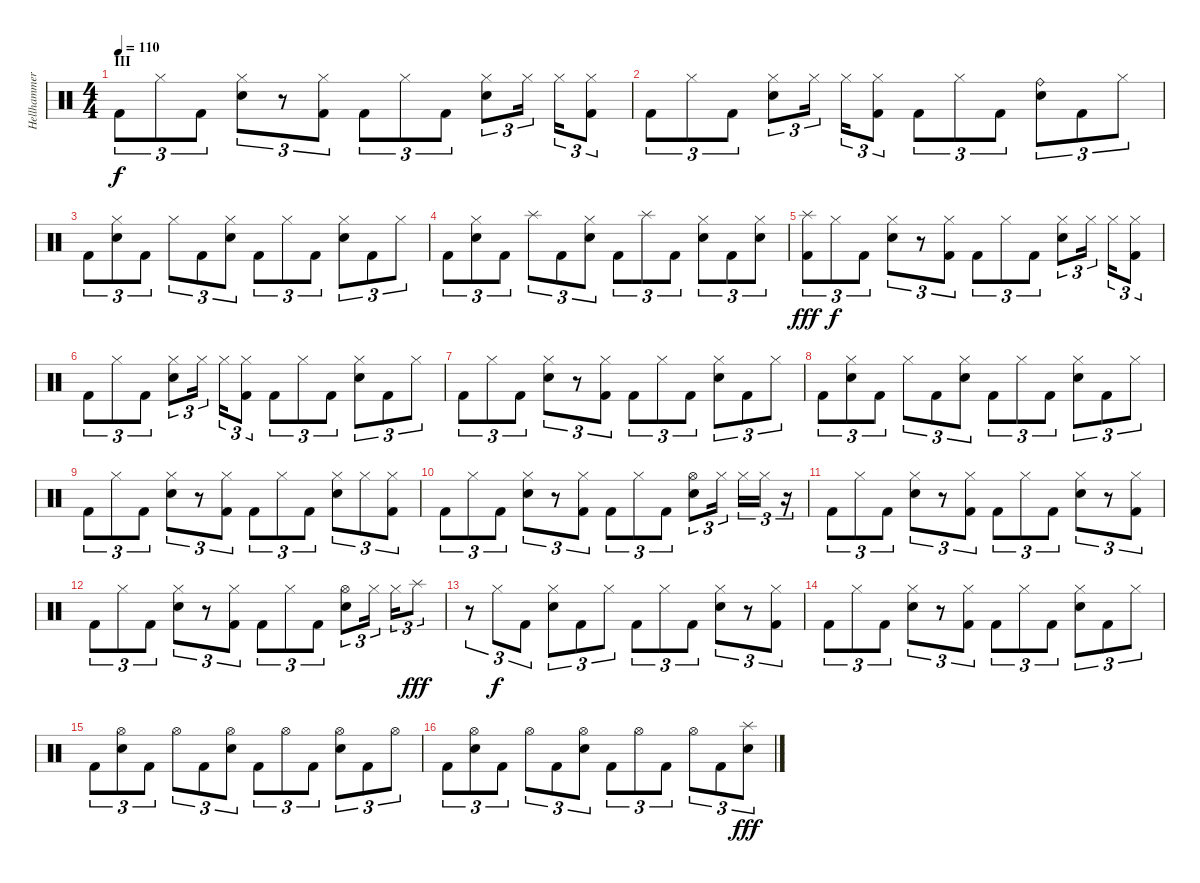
\track ("Hellhammer" "Hellhammer") {instrument percussion}
\staff {score}
\articulation defaults
\ts (4 4)
\section ("" "III")
\tempo 110
\clef neutral
\ks c "Kick (hit) 2".8{tu (3 2) dy f} "Hi-Hat (closed)".8{tu (3 2)} "Kick (hit) 2".8{tu (3 2)}
("Electric Snare (hit)" "Hi-Hat (closed)").8{tu (3 2)} r.8{tu (3 2)} ("Kick (hit) 2" "Hi-Hat (closed)").8{tu (3 2)} "Kick (hit) 2".8{tu (3 2)} "Hi-Hat (closed)".8{tu (3 2)} "Kick (hit) 2".8{tu (3 2)} ("Electric Snare (hit)" "Hi-Hat (closed)").8{tu (3 2)} "Hi-Hat (closed)".16{tu (3 2)} "Hi-Hat (closed)".16{tu (3 2)} ("Kick (hit) 2" "Hi-Hat (closed)").8{tu (3 2)} |
"Kick (hit) 2".8{tu (3 2)} "Hi-Hat (closed)".8{tu (3 2)} "Kick (hit) 2".8{tu (3 2)} ("Electric Snare (hit)" "Hi-Hat (closed)").8{tu (3 2)} "Hi-Hat (closed)".16{tu (3 2)} "Hi-Hat (closed)".16{tu (3 2)} ("Kick (hit) 2" "Hi-Hat (closed)").8{tu (3 2)} "Kick (hit) 2".8{tu (3 2)} "Hi-Hat (closed)".8{tu (3 2)} "Kick (hit) 2".8{tu (3 2)} ("Electric Snare (hit)" "Ride (bell)").8{tu (3 2)} "Kick (hit) 2".8{tu (3 2)} "Hi-Hat (closed)".8{tu (3 2)} |
"Kick (hit) 2".8{tu (3 2)} ("Electric Snare (hit)" "Hi-Hat (closed)").8{tu (3 2)} "Kick (hit) 2".8{tu (3 2)} "Hi-Hat (closed)".8{tu (3 2)} "Kick (hit) 2".8{tu (3 2)} ("Electric Snare (hit)" "Hi-Hat (closed)").8{tu (3 2)} "Kick (hit) 2".8{tu (3 2)} "Hi-Hat (closed)".8{tu (3 2)} "Kick (hit) 2".8{tu (3 2)} ("Electric Snare (hit)" "Hi-Hat (closed)").8{tu (3 2)} "Kick (hit) 2".8{tu (3 2)} "Hi-Hat (closed)".8{tu (3 2)} |
"Kick (hit) 2".8{tu (3 2)} ("Electric Snare (hit)" "Hi-Hat (closed)").8{tu (3 2)} "Kick (hit) 2".8{tu (3 2)} "Splash (hit)".8{tu (3 2)} "Kick (hit) 2".8{tu (3 2)} ("Electric Snare (hit)" "Hi-Hat (closed)").8{tu (3 2)} "Kick (hit) 2".8{tu (3 2)} "Splash (hit)".8{tu (3 2)} "Kick (hit) 2".8{tu (3 2)} ("Electric Snare (hit)" "Hi-Hat (closed)").8{tu (3 2)} "Kick (hit) 2".8{tu (3 2)} ("Electric Snare (hit)" "Hi-Hat (closed)").8{tu (3 2)} |
("Kick (hit) 2" "Splash (hit)").8{tu (3 2) dy fff} "Hi-Hat (closed)".8{tu (3 2) dy f} "Kick (hit) 2".8{tu (3 2)} ("Electric Snare (hit)" "Hi-Hat (closed)").8{tu (3 2)} r.8{tu (3 2)} ("Kick (hit) 2" "Hi-Hat (closed)").8{tu (3 2)} "Kick (hit) 2".8{tu (3 2)} "Hi-Hat (closed)".8{tu (3 2)} "Kick (hit) 2".8{tu (3 2)} ("Electric Snare (hit)" "Hi-Hat (closed)").8{tu (3 2)} "Hi-Hat (closed)".16{tu (3 2)} "Hi-Hat (closed)".16{tu (3 2)} ("Kick (hit) 2" "Hi-Hat (closed)").8{tu (3 2)} |
"Kick (hit) 2".8{tu (3 2)} "Hi-Hat (closed)".8{tu (3 2)} "Kick (hit) 2".8{tu (3 2)} ("Electric Snare (hit)" "Hi-Hat (closed)").8{tu (3 2)} "Hi-Hat (closed)".16{tu (3 2)} "Hi-Hat (closed)".16{tu (3 2)} ("Kick (hit) 2" "Hi-Hat (closed)").8{tu (3 2)} "Kick (hit) 2".8{tu (3 2)} "Hi-Hat (closed)".8{tu (3 2)} "Kick (hit) 2".8{tu (3 2)} ("Electric Snare (hit)" "Hi-Hat (closed)").8{tu (3 2)} "Kick (hit) 2".8{tu (3 2)} "Hi-Hat (closed)".8{tu (3 2)} |
"Kick (hit) 2".8{tu (3 2)} "Hi-Hat (closed)".8{tu (3 2)} "Kick (hit) 2".8{tu (3 2)} ("Electric Snare (hit)" "Hi-Hat (closed)").8{tu (3 2)} r.8{tu (3 2)} ("Kick (hit) 2" "Hi-Hat (closed)").8{tu (3 2)} "Kick (hit) 2".8{tu (3 2)} "Hi-Hat (closed)".8{tu (3 2)} "Kick (hit) 2".8{tu (3 2)} ("Electric Snare (hit)" "Hi-Hat (closed)").8{tu (3 2)} "Kick (hit) 2".8{tu (3 2)} "Hi-Hat (closed)".8{tu (3 2)} |
"Kick (hit) 2".8{tu (3 2)} ("Electric Snare (hit)" "Hi-Hat (closed)").8{tu (3 2)} "Kick (hit) 2".8{tu (3 2)} "Hi-Hat (closed)".8{tu (3 2)} "Kick (hit) 2".8{tu (3 2)} ("Electric Snare (hit)" "Hi-Hat (closed)").8{tu (3 2)} "Kick (hit) 2".8{tu (3 2)} "Hi-Hat (closed)".8{tu (3 2)} "Kick (hit) 2".8{tu (3 2)} ("Electric Snare (hit)" "Hi-Hat (closed)").8{tu (3 2)} "Kick (hit) 2".8{tu (3 2)} "Hi-Hat (closed)".8{tu (3 2)} |
"Kick (hit) 2".8{tu (3 2)} "Hi-Hat (closed)".8{tu (3 2)} "Kick (hit) 2".8{tu (3 2)} ("Electric Snare (hit)" "Hi-Hat (closed)").8{tu (3 2)} r.8{tu (3 2)} ("Kick (hit) 2" "Hi-Hat (closed)").8{tu (3 2)} "Kick (hit) 2".8{tu (3 2)} "Hi-Hat (closed)".8{tu (3 2)} "Kick (hit) 2".8{tu (3 2)} ("Electric Snare (hit)" "Hi-Hat (closed)").8{tu (3 2)} "Hi-Hat (closed)".8{tu (3 2)} ("Kick (hit) 2" "Hi-Hat (closed)").8{tu (3 2)} |
"Kick (hit) 2".8{tu (3 2)} "Hi-Hat (closed)".8{tu (3 2)} "Kick (hit) 2".8{tu (3 2)} ("Electric Snare (hit)" "Hi-Hat (closed)").8{tu (3 2)} r.8{tu (3 2)} ("Kick (hit) 2" "Hi-Hat (closed)").8{tu (3 2)} "Kick (hit) 2".8{tu (3 2)} "Hi-Hat (closed)".8{tu (3 2)} "Kick (hit) 2".8{tu (3 2)} ("Electric Snare (hit)" "Hi-Hat (open)").8{tu (3 2)} "Hi-Hat (closed)".16{tu (3 2)} "Hi-Hat (closed)".16{tu (3 2)} "Hi-Hat (closed)".16{tu (3 2)} r.16{tu (3 2)} |
"Kick (hit) 2".8{tu (3 2)} "Hi-Hat (closed)".8{tu (3 2)} "Kick (hit) 2".8{tu (3 2)} ("Electric Snare (hit)" "Hi-Hat (closed)").8{tu (3 2)} r.8{tu (3 2)} ("Kick (hit) 2" "Hi-Hat (closed)").8{tu (3 2)} "Kick (hit) 2".8{tu (3 2)} "Hi-Hat (closed)".8{tu (3 2)} "Kick (hit) 2".8{tu (3 2)} ("Electric Snare (hit)" "Hi-Hat (closed)").8{tu (3 2)} r.8{tu (3 2)} ("Kick (hit) 2" "Hi-Hat (closed)").8{tu (3 2)} |
"Kick (hit) 2".8{tu (3 2)} "Hi-Hat (closed)".8{tu (3 2)} "Kick (hit) 2".8{tu (3 2)} ("Electric Snare (hit)" "Hi-Hat (closed)").8{tu (3 2)} r.8{tu (3 2)} ("Kick (hit) 2" "Hi-Hat (closed)").8{tu (3 2)} "Kick (hit) 2".8{tu (3 2)} "Hi-Hat (closed)".8{tu (3 2)} "Kick (hit) 2".8{tu (3 2)} ("Electric Snare (hit)" "Hi-Hat (open)").8{tu (3 2)} "Hi-Hat (closed)".16{tu (3 2)} "Hi-Hat (closed)".16{tu (3 2)} "Splash (hit)".8{tu (3 2) dy fff} |
r.8{tu (3 2)} "Hi-Hat (closed)".8{tu (3 2) dy f} "Kick (hit) 2".8{tu (3 2)} ("Electric Snare (hit)" "Hi-Hat (closed)").8{tu (3 2)} "Kick (hit) 2".8{tu (3 2)} "Hi-Hat (closed)".8{tu (3 2)} "Kick (hit) 2".8{tu (3 2)} "Hi-Hat (closed)".8{tu (3 2)} "Kick (hit) 2".8{tu (3 2)} ("Electric Snare (hit)" "Hi-Hat (closed)").8{tu (3 2)} r.8{tu (3 2)} ("Kick (hit) 2" "Hi-Hat (closed)").8{tu (3 2)} |
"Kick (hit) 2".8{tu (3 2)} "Hi-Hat (closed)".8{tu (3 2)} "Kick (hit) 2".8{tu (3 2)} ("Electric Snare (hit)" "Hi-Hat (closed)").8{tu (3 2)} r.8{tu (3 2)} ("Kick (hit) 2" "Hi-Hat (closed)").8{tu (3 2)} "Kick (hit) 2".8{tu (3 2)} "Hi-Hat (closed)".8{tu (3 2)} "Kick (hit) 2".8{tu (3 2)} ("Electric Snare (hit)" "Hi-Hat (closed)").8{tu (3 2)} "Kick (hit) 2".8{tu (3 2)} "Hi-Hat (closed)".8{tu (3 2)} |
"Kick (hit) 2".8{tu (3 2)} ("Electric Snare (hit)" "Hi-Hat (open)").8{tu (3 2)} "Kick (hit) 2".8{tu (3 2)} "Hi-Hat (open)".8{tu (3 2)} "Kick (hit) 2".8{tu (3 2)} ("Electric Snare (hit)" "Hi-Hat (open)").8{tu (3 2)} "Kick (hit) 2".8{tu (3 2)} "Hi-Hat (open)".8{tu (3 2)} "Kick (hit) 2".8{tu (3 2)} ("Electric Snare (hit)" "Hi-Hat (open)").8{tu (3 2)} "Kick (hit) 2".8{tu (3 2)} "Hi-Hat (open)".8{tu (3 2)} |
"Kick (hit) 2".8{tu (3 2)} ("Electric Snare (hit)" "Hi-Hat (open)").8{tu (3 2)} "Kick (hit) 2".8{tu (3 2)} "Hi-Hat (open)".8{tu (3 2)} "Kick (hit) 2".8{tu (3 2)} ("Electric Snare (hit)" "Hi-Hat (open)").8{tu (3 2)} "Kick (hit) 2".8{tu (3 2)} "Hi-Hat (open)".8{tu (3 2)} "Kick (hit) 2".8{tu (3 2)} "Hi-Hat (open)".8{tu (3 2)} "Kick (hit) 2".8{tu (3 2)} ("Electric Snare (hit)" "Splash (hit)").8{tu (3 2) dy fff}
